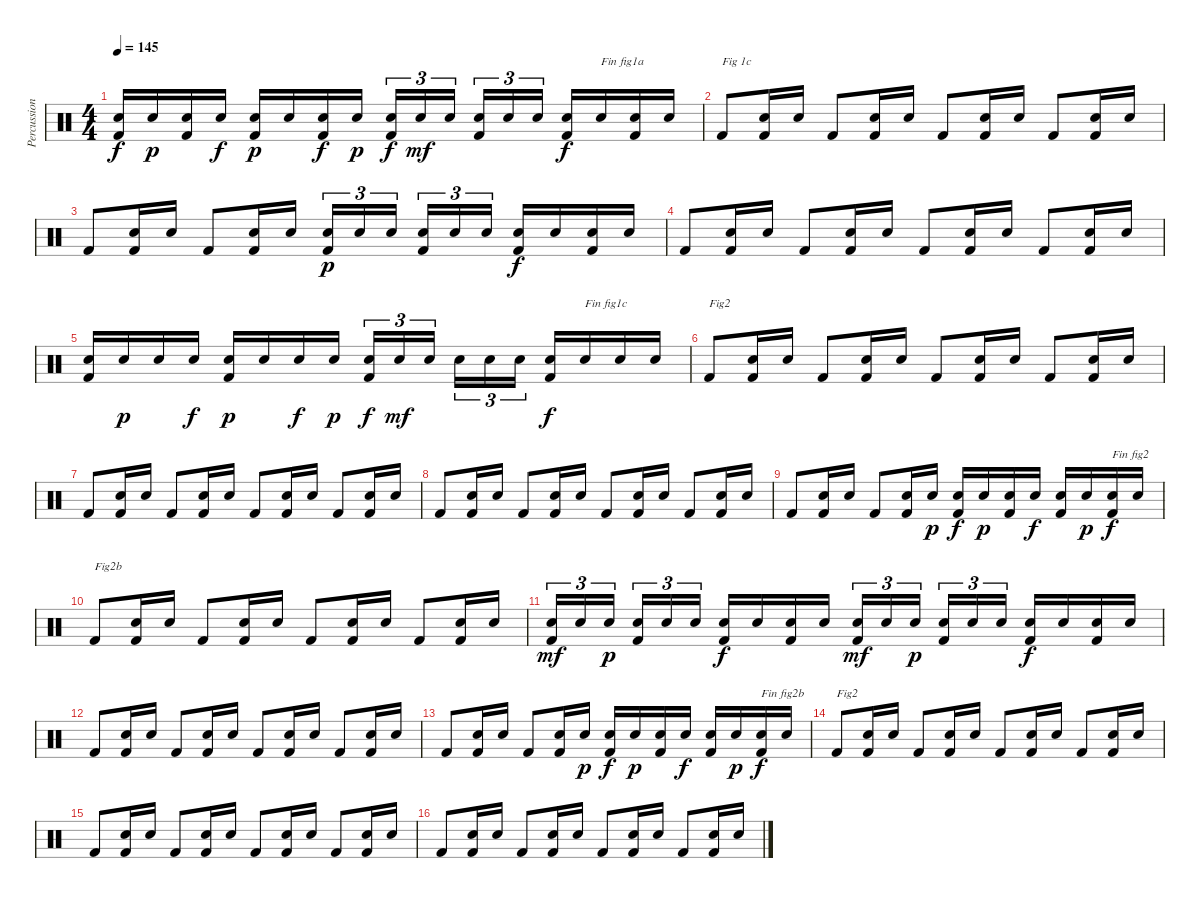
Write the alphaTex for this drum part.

\track ("Percussions" "Percussion") {instrument percussion}
\staff {score}
\articulation defaults
\ts (4 4)
\tempo 145
\clef neutral
\ks c
("Kick (hit) 2" "Electric Snare (hit)").16{dy f} "Electric Snare (hit)".16{dy p} ("Kick (hit) 2" "Electric Snare (hit)").16 "Electric Snare (hit)".16{dy f} ("Kick (hit) 2" "Electric Snare (hit)").16{dy p} "Electric Snare (hit)".16 ("Kick (hit) 2" "Electric Snare (hit)").16{dy f} "Electric Snare (hit)".16{dy p} ("Kick (hit) 2" "Electric Snare (hit)").16{tu (3 2) dy f} "Electric Snare (hit)".16{tu (3 2) dy mf} "Electric Snare (hit)".16{tu (3 2)} ("Kick (hit) 2" "Electric Snare (hit)").16{tu (3 2)} "Electric Snare (hit)".16{tu (3 2)} "Electric Snare (hit)".16{tu (3 2)} ("Kick (hit) 2" "Electric Snare (hit)").16{dy f} "Electric Snare (hit)".16{txt "Fin fig1a"} ("Kick (hit) 2" "Electric Snare (hit)").16 "Electric Snare (hit)".16 |
"Kick (hit) 2".8{txt "Fig 1c"} ("Kick (hit) 2" "Electric Snare (hit)").16 "Electric Snare (hit)".16 "Kick (hit) 2".8 ("Kick (hit) 2" "Electric Snare (hit)").16 "Electric Snare (hit)".16 "Kick (hit) 2".8 ("Kick (hit) 2" "Electric Snare (hit)").16 "Electric Snare (hit)".16 "Kick (hit) 2".8 ("Kick (hit) 2" "Electric Snare (hit)").16 "Electric Snare (hit)".16 |
"Kick (hit) 2".8 ("Kick (hit) 2" "Electric Snare (hit)").16 "Electric Snare (hit)".16 "Kick (hit) 2".8 ("Kick (hit) 2" "Electric Snare (hit)").16 "Electric Snare (hit)".16 ("Kick (hit) 2" "Electric Snare (hit)").16{tu (3 2) dy p} "Electric Snare (hit)".16{tu (3 2)} "Electric Snare (hit)".16{tu (3 2)} ("Kick (hit) 2" "Electric Snare (hit)").16{tu (3 2)} "Electric Snare (hit)".16{tu (3 2)} "Electric Snare (hit)".16{tu (3 2)} ("Kick (hit) 2" "Electric Snare (hit)").16{dy f} "Electric Snare (hit)".16 ("Kick (hit) 2" "Electric Snare (hit)").16 "Electric Snare (hit)".16 |
"Kick (hit) 2".8 ("Kick (hit) 2" "Electric Snare (hit)").16 "Electric Snare (hit)".16 "Kick (hit) 2".8 ("Kick (hit) 2" "Electric Snare (hit)").16 "Electric Snare (hit)".16 "Kick (hit) 2".8 ("Kick (hit) 2" "Electric Snare (hit)").16 "Electric Snare (hit)".16 "Kick (hit) 2".8 ("Kick (hit) 2" "Electric Snare (hit)").16 "Electric Snare (hit)".16 |
("Kick (hit) 2" "Electric Snare (hit)").16 "Electric Snare (hit)".16{dy p} "Electric Snare (hit)".16 "Electric Snare (hit)".16{dy f} ("Kick (hit) 2" "Electric Snare (hit)").16{dy p} "Electric Snare (hit)".16 "Electric Snare (hit)".16{dy f} "Electric Snare (hit)".16{dy p} ("Kick (hit) 2" "Electric Snare (hit)").16{tu (3 2) dy f} "Electric Snare (hit)".16{tu (3 2) dy mf} "Electric Snare (hit)".16{tu (3 2)} "Electric Snare (hit)".16{tu (3 2)} "Electric Snare (hit)".16{tu (3 2)} "Electric Snare (hit)".16{tu (3 2)} ("Kick (hit) 2" "Electric Snare (hit)").16{dy f} "Electric Snare (hit)".16{txt "Fin fig1c"} "Electric Snare (hit)".16 "Electric Snare (hit)".16 |
"Kick (hit) 2".8{txt "Fig2"} ("Kick (hit) 2" "Electric Snare (hit)").16 "Electric Snare (hit)".16 "Kick (hit) 2".8 ("Kick (hit) 2" "Electric Snare (hit)").16 "Electric Snare (hit)".16 "Kick (hit) 2".8 ("Kick (hit) 2" "Electric Snare (hit)").16 "Electric Snare (hit)".16 "Kick (hit) 2".8 ("Kick (hit) 2" "Electric Snare (hit)").16 "Electric Snare (hit)".16 |
"Kick (hit) 2".8 ("Kick (hit) 2" "Electric Snare (hit)").16 "Electric Snare (hit)".16 "Kick (hit) 2".8 ("Kick (hit) 2" "Electric Snare (hit)").16 "Electric Snare (hit)".16 "Kick (hit) 2".8 ("Kick (hit) 2" "Electric Snare (hit)").16 "Electric Snare (hit)".16 "Kick (hit) 2".8 ("Kick (hit) 2" "Electric Snare (hit)").16 "Electric Snare (hit)".16 |
"Kick (hit) 2".8 ("Kick (hit) 2" "Electric Snare (hit)").16 "Electric Snare (hit)".16 "Kick (hit) 2".8 ("Kick (hit) 2" "Electric Snare (hit)").16 "Electric Snare (hit)".16 "Kick (hit) 2".8 ("Kick (hit) 2" "Electric Snare (hit)").16 "Electric Snare (hit)".16 "Kick (hit) 2".8 ("Kick (hit) 2" "Electric Snare (hit)").16 "Electric Snare (hit)".16 |
"Kick (hit) 2".8 ("Kick (hit) 2" "Electric Snare (hit)").16 "Electric Snare (hit)".16 "Kick (hit) 2".8 ("Kick (hit) 2" "Electric Snare (hit)").16 "Electric Snare (hit)".16{dy p} ("Kick (hit) 2" "Electric Snare (hit)").16{dy f} "Electric Snare (hit)".16{dy p} ("Kick (hit) 2" "Electric Snare (hit)").16 "Electric Snare (hit)".16{dy f} ("Kick (hit) 2" "Electric Snare (hit)").16 "Electric Snare (hit)".16{dy p} ("Kick (hit) 2" "Electric Snare (hit)").16{txt "Fin fig2" dy f} "Electric Snare (hit)".16 |
"Kick (hit) 2".8{txt "Fig2b"} ("Kick (hit) 2" "Electric Snare (hit)").16 "Electric Snare (hit)".16 "Kick (hit) 2".8 ("Kick (hit) 2" "Electric Snare (hit)").16 "Electric Snare (hit)".16 "Kick (hit) 2".8 ("Kick (hit) 2" "Electric Snare (hit)").16 "Electric Snare (hit)".16 "Kick (hit) 2".8 ("Kick (hit) 2" "Electric Snare (hit)").16 "Electric Snare (hit)".16 |
("Kick (hit) 2" "Electric Snare (hit)").16{tu (3 2) dy mf} "Electric Snare (hit)".16{tu (3 2)} "Electric Snare (hit)".16{tu (3 2) dy p} ("Kick (hit) 2" "Electric Snare (hit)").16{tu (3 2)} "Electric Snare (hit)".16{tu (3 2)} "Electric Snare (hit)".16{tu (3 2)} ("Kick (hit) 2" "Electric Snare (hit)").16{dy f} "Electric Snare (hit)".16 ("Kick (hit) 2" "Electric Snare (hit)").16 "Electric Snare (hit)".16 ("Kick (hit) 2" "Electric Snare (hit)").16{tu (3 2) dy mf} "Electric Snare (hit)".16{tu (3 2)} "Electric Snare (hit)".16{tu (3 2) dy p} ("Kick (hit) 2" "Electric Snare (hit)").16{tu (3 2)} "Electric Snare (hit)".16{tu (3 2)} "Electric Snare (hit)".16{tu (3 2)} ("Kick (hit) 2" "Electric Snare (hit)").16{dy f} "Electric Snare (hit)".16 ("Kick (hit) 2" "Electric Snare (hit)").16 "Electric Snare (hit)".16 |
"Kick (hit) 2".8 ("Kick (hit) 2" "Electric Snare (hit)").16 "Electric Snare (hit)".16 "Kick (hit) 2".8 ("Kick (hit) 2" "Electric Snare (hit)").16 "Electric Snare (hit)".16 "Kick (hit) 2".8 ("Kick (hit) 2" "Electric Snare (hit)").16 "Electric Snare (hit)".16 "Kick (hit) 2".8 ("Kick (hit) 2" "Electric Snare (hit)").16 "Electric Snare (hit)".16 |
"Kick (hit) 2".8 ("Kick (hit) 2" "Electric Snare (hit)").16 "Electric Snare (hit)".16 "Kick (hit) 2".8 ("Kick (hit) 2" "Electric Snare (hit)").16 "Electric Snare (hit)".16{dy p} ("Kick (hit) 2" "Electric Snare (hit)").16{dy f} "Electric Snare (hit)".16{dy p} ("Kick (hit) 2" "Electric Snare (hit)").16 "Electric Snare (hit)".16{dy f} ("Kick (hit) 2" "Electric Snare (hit)").16 "Electric Snare (hit)".16{dy p} ("Kick (hit) 2" "Electric Snare (hit)").16{txt "Fin fig2b" dy f} "Electric Snare (hit)".16 |
"Kick (hit) 2".8{txt "Fig2"} ("Kick (hit) 2" "Electric Snare (hit)").16 "Electric Snare (hit)".16 "Kick (hit) 2".8 ("Kick (hit) 2" "Electric Snare (hit)").16 "Electric Snare (hit)".16 "Kick (hit) 2".8 ("Kick (hit) 2" "Electric Snare (hit)").16 "Electric Snare (hit)".16 "Kick (hit) 2".8 ("Kick (hit) 2" "Electric Snare (hit)").16 "Electric Snare (hit)".16 |
"Kick (hit) 2".8 ("Kick (hit) 2" "Electric Snare (hit)").16 "Electric Snare (hit)".16 "Kick (hit) 2".8 ("Kick (hit) 2" "Electric Snare (hit)").16 "Electric Snare (hit)".16 "Kick (hit) 2".8 ("Kick (hit) 2" "Electric Snare (hit)").16 "Electric Snare (hit)".16 "Kick (hit) 2".8 ("Kick (hit) 2" "Electric Snare (hit)").16 "Electric Snare (hit)".16 |
"Kick (hit) 2".8 ("Kick (hit) 2" "Electric Snare (hit)").16 "Electric Snare (hit)".16 "Kick (hit) 2".8 ("Kick (hit) 2" "Electric Snare (hit)").16 "Electric Snare (hit)".16 "Kick (hit) 2".8 ("Kick (hit) 2" "Electric Snare (hit)").16 "Electric Snare (hit)".16 "Kick (hit) 2".8 ("Kick (hit) 2" "Electric Snare (hit)").16 "Electric Snare (hit)".16
